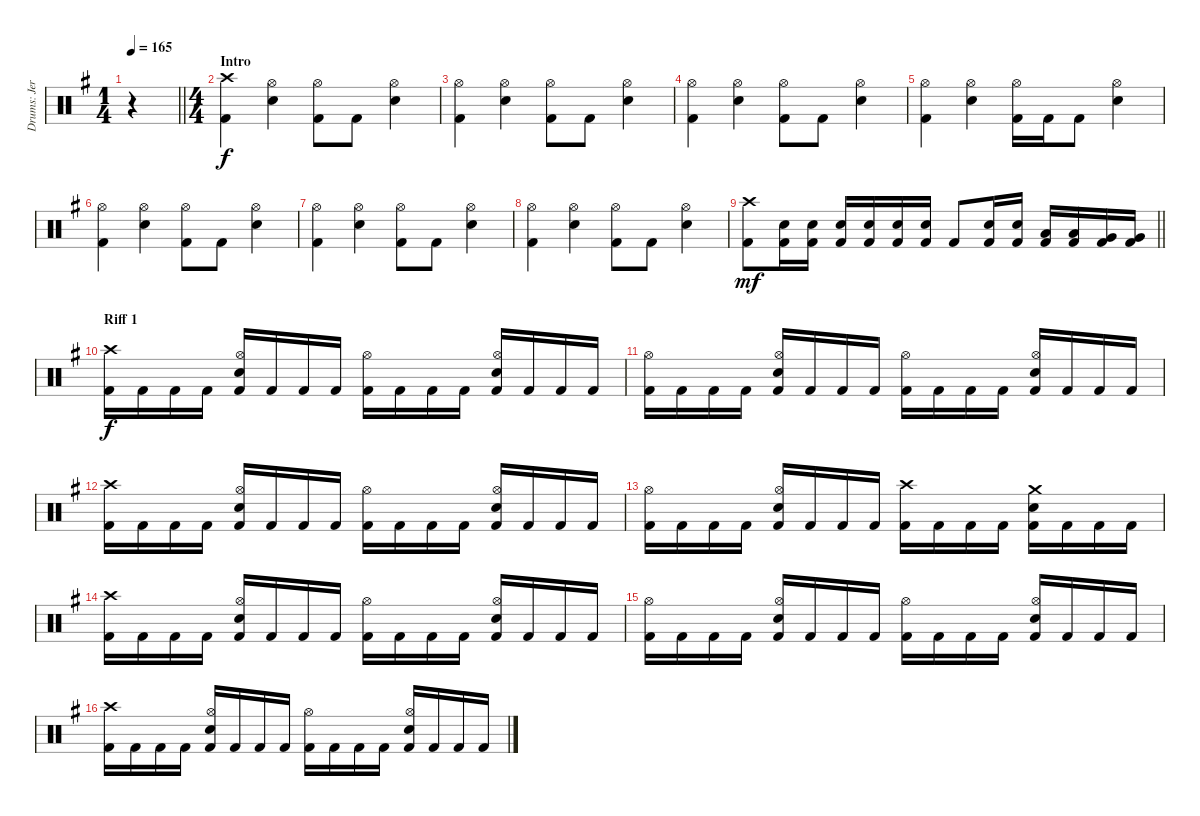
\track ("Drums: Jere Luokkamäki" "Drums: Jer") {instrument percussion}
\staff {score}
\articulation defaults
\ts (1 4)
\tempo 165
\clef neutral
\barLineRight lightlight
\ks eminor
r.4{dy f} |
\ts (4 4)
\section ("" "Intro")
("Crash high (hit)" "Kick (hit) 2").4 ("Hi-Hat (open)" "Electric Snare (hit)").4 ("Hi-Hat (open)" "Kick (hit) 2").8 "Kick (hit) 2".8 ("Hi-Hat (open)" "Electric Snare (hit)").4 |
("Hi-Hat (open)" "Kick (hit) 2").4 ("Hi-Hat (open)" "Electric Snare (hit)").4 ("Hi-Hat (open)" "Kick (hit) 2").8 "Kick (hit) 2".8 ("Hi-Hat (open)" "Electric Snare (hit)").4 |
("Hi-Hat (open)" "Kick (hit) 2").4 ("Hi-Hat (open)" "Electric Snare (hit)").4 ("Hi-Hat (open)" "Kick (hit) 2").8 "Kick (hit) 2".8 ("Hi-Hat (open)" "Electric Snare (hit)").4 |
("Hi-Hat (open)" "Kick (hit) 2").4 ("Hi-Hat (open)" "Electric Snare (hit)").4 ("Hi-Hat (open)" "Kick (hit) 2").16 "Kick (hit) 2".16 "Kick (hit) 2".8 ("Hi-Hat (open)" "Electric Snare (hit)").4 |
("Hi-Hat (open)" "Kick (hit) 2").4 ("Hi-Hat (open)" "Electric Snare (hit)").4 ("Hi-Hat (open)" "Kick (hit) 2").8 "Kick (hit) 2".8 ("Hi-Hat (open)" "Electric Snare (hit)").4 |
("Hi-Hat (open)" "Kick (hit) 2").4 ("Hi-Hat (open)" "Electric Snare (hit)").4 ("Hi-Hat (open)" "Kick (hit) 2").8 "Kick (hit) 2".8 ("Hi-Hat (open)" "Electric Snare (hit)").4 |
("Hi-Hat (open)" "Kick (hit) 2").4 ("Hi-Hat (open)" "Electric Snare (hit)").4 ("Hi-Hat (open)" "Kick (hit) 2").8 "Kick (hit) 2".8 ("Hi-Hat (open)" "Electric Snare (hit)").4 |
\barLineRight lightlight
("Crash high (hit)" "Kick (hit) 2").8{dy mf} ("Electric Snare (hit)" "Kick (hit) 2").16 ("Electric Snare (hit)" "Kick (hit) 2").16 ("Electric Snare (hit)" "Kick (hit) 2").16 ("Electric Snare (hit)" "Kick (hit) 2").16 ("Electric Snare (hit)" "Kick (hit) 2").16 ("Electric Snare (hit)" "Kick (hit) 2").16 "Kick (hit) 2".8 ("Electric Snare (hit)" "Kick (hit) 2").16 ("Electric Snare (hit)" "Kick (hit) 2").16 ("Low Tom (hit)" "Kick (hit) 2").16 ("Low Tom (hit)" "Kick (hit) 2").16 ("Very Low Tom (hit)" "Kick (hit) 2").16 ("Very Low Tom (hit)" "Kick (hit) 2").16 |
\section ("" "Riff 1")
("Crash high (hit)" "Kick (hit) 2").16{dy f} "Kick (hit) 2".16 "Kick (hit) 2".16 "Kick (hit) 2".16 ("Hi-Hat (open)" "Electric Snare (hit)" "Kick (hit) 2").16 "Kick (hit) 2".16 "Kick (hit) 2".16 "Kick (hit) 2".16 ("Hi-Hat (open)" "Kick (hit) 2").16 "Kick (hit) 2".16 "Kick (hit) 2".16 "Kick (hit) 2".16 ("Hi-Hat (open)" "Electric Snare (hit)" "Kick (hit) 2").16 "Kick (hit) 2".16 "Kick (hit) 2".16 "Kick (hit) 2".16 |
("Hi-Hat (open)" "Kick (hit) 2").16 "Kick (hit) 2".16 "Kick (hit) 2".16 "Kick (hit) 2".16 ("Hi-Hat (open)" "Electric Snare (hit)" "Kick (hit) 2").16 "Kick (hit) 2".16 "Kick (hit) 2".16 "Kick (hit) 2".16 ("Hi-Hat (open)" "Kick (hit) 2").16 "Kick (hit) 2".16 "Kick (hit) 2".16 "Kick (hit) 2".16 ("Hi-Hat (open)" "Electric Snare (hit)" "Kick (hit) 2").16 "Kick (hit) 2".16 "Kick (hit) 2".16 "Kick (hit) 2".16 |
("Crash high (hit)" "Kick (hit) 2").16 "Kick (hit) 2".16 "Kick (hit) 2".16 "Kick (hit) 2".16 ("Hi-Hat (open)" "Electric Snare (hit)" "Kick (hit) 2").16 "Kick (hit) 2".16 "Kick (hit) 2".16 "Kick (hit) 2".16 ("Hi-Hat (open)" "Kick (hit) 2").16 "Kick (hit) 2".16 "Kick (hit) 2".16 "Kick (hit) 2".16 ("Hi-Hat (open)" "Electric Snare (hit)" "Kick (hit) 2").16 "Kick (hit) 2".16 "Kick (hit) 2".16 "Kick (hit) 2".16 |
("Hi-Hat (open)" "Kick (hit) 2").16 "Kick (hit) 2".16 "Kick (hit) 2".16 "Kick (hit) 2".16 ("Hi-Hat (open)" "Electric Snare (hit)" "Kick (hit) 2").16 "Kick (hit) 2".16 "Kick (hit) 2".16 "Kick (hit) 2".16 ("Crash high (hit)" "Kick (hit) 2").16 "Kick (hit) 2".16 "Kick (hit) 2".16 "Kick (hit) 2".16 ("Crash medium (hit)" "Electric Snare (hit)" "Kick (hit) 2").16 "Kick (hit) 2".16 "Kick (hit) 2".16 "Kick (hit) 2".16 |
("Crash high (hit)" "Kick (hit) 2").16 "Kick (hit) 2".16 "Kick (hit) 2".16 "Kick (hit) 2".16 ("Hi-Hat (open)" "Electric Snare (hit)" "Kick (hit) 2").16 "Kick (hit) 2".16 "Kick (hit) 2".16 "Kick (hit) 2".16 ("Hi-Hat (open)" "Kick (hit) 2").16 "Kick (hit) 2".16 "Kick (hit) 2".16 "Kick (hit) 2".16 ("Hi-Hat (open)" "Electric Snare (hit)" "Kick (hit) 2").16 "Kick (hit) 2".16 "Kick (hit) 2".16 "Kick (hit) 2".16 |
("Hi-Hat (open)" "Kick (hit) 2").16 "Kick (hit) 2".16 "Kick (hit) 2".16 "Kick (hit) 2".16 ("Hi-Hat (open)" "Electric Snare (hit)" "Kick (hit) 2").16 "Kick (hit) 2".16 "Kick (hit) 2".16 "Kick (hit) 2".16 ("Hi-Hat (open)" "Kick (hit) 2").16 "Kick (hit) 2".16 "Kick (hit) 2".16 "Kick (hit) 2".16 ("Hi-Hat (open)" "Electric Snare (hit)" "Kick (hit) 2").16 "Kick (hit) 2".16 "Kick (hit) 2".16 "Kick (hit) 2".16 |
("Crash high (hit)" "Kick (hit) 2").16 "Kick (hit) 2".16 "Kick (hit) 2".16 "Kick (hit) 2".16 ("Hi-Hat (open)" "Electric Snare (hit)" "Kick (hit) 2").16 "Kick (hit) 2".16 "Kick (hit) 2".16 "Kick (hit) 2".16 ("Hi-Hat (open)" "Kick (hit) 2").16 "Kick (hit) 2".16 "Kick (hit) 2".16 "Kick (hit) 2".16 ("Hi-Hat (open)" "Electric Snare (hit)" "Kick (hit) 2").16 "Kick (hit) 2".16 "Kick (hit) 2".16 "Kick (hit) 2".16
